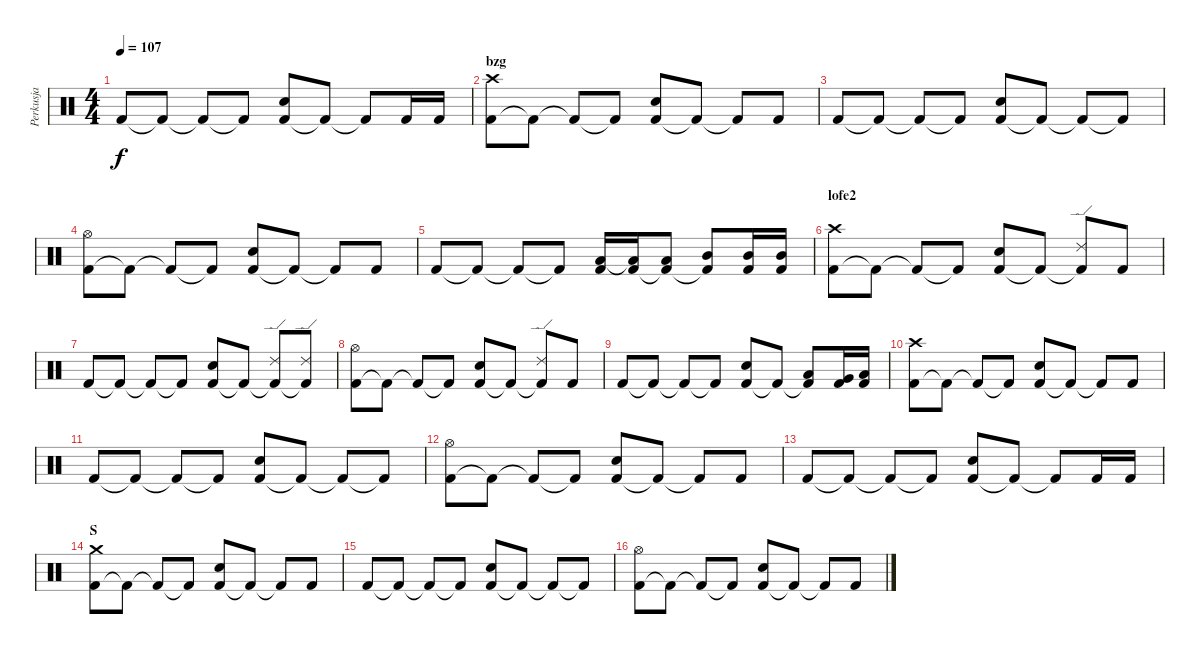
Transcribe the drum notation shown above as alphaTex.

\track ("Perkusja" "Perkusja") {instrument percussion}
\staff {score}
\articulation defaults
\ts (4 4)
\tempo 107
\clef neutral
\ks c "Kick (hit) 2".8{dy f} "Kick (hit) 2"{t}.8 "Kick (hit) 2"{t}.8 "Kick (hit) 2"{t}.8
("Kick (hit) 2" "Snare (hit) 2").8 "Kick (hit) 2"{t}.8 "Kick (hit) 2"{t}.8 "Kick (hit) 2".16 "Kick (hit) 2".16 |
\section ("" "bzg")
("Kick (hit) 2" "Crash high (hit)").8 "Kick (hit) 2"{t}.8 "Kick (hit) 2"{t}.8 "Kick (hit) 2"{t}.8 ("Kick (hit) 2" "Snare (hit) 2").8 "Kick (hit) 2"{t}.8 "Kick (hit) 2"{t}.8 "Kick (hit) 2".8 |
"Kick (hit) 2".8 "Kick (hit) 2"{t}.8 "Kick (hit) 2"{t}.8 "Kick (hit) 2"{t}.8 ("Kick (hit) 2" "Snare (hit) 2").8 "Kick (hit) 2"{t}.8 "Kick (hit) 2"{t}.8 "Kick (hit) 2"{t}.8 |
("Kick (hit) 2" "Hi-Hat (open)").8 "Kick (hit) 2"{t}.8 "Kick (hit) 2"{t}.8 "Kick (hit) 2"{t}.8 ("Kick (hit) 2" "Snare (hit) 2").8 "Kick (hit) 2"{t}.8 "Kick (hit) 2"{t}.8 "Kick (hit) 2".8 |
"Kick (hit) 2".8 "Kick (hit) 2"{t}.8 "Kick (hit) 2"{t}.8 "Kick (hit) 2"{t}.8 ("Kick (hit) 2" "Low Tom (hit)").16 ("Kick (hit) 2" "Low Tom (hit)"{t}).16 ("Kick (hit) 2"{t} "Low Tom (hit)").8 ("Kick (hit) 2"{t} "Mid Tom (hit)").8 ("Kick (hit) 2" "Mid Tom (hit)").16 ("Kick (hit) 2" "Mid Tom (hit)").16 |
\section ("" "lofe2")
("Kick (hit) 2" "Crash high (hit)").8 "Kick (hit) 2"{t}.8 "Kick (hit) 2"{t}.8 "Kick (hit) 2"{t}.8 ("Kick (hit) 2" "Snare (hit) 2").8 "Kick (hit) 2"{t}.8 ("Kick (hit) 2"{t} "Ride (edge) 2").8 "Kick (hit) 2".8 |
"Kick (hit) 2".8 "Kick (hit) 2"{t}.8 "Kick (hit) 2"{t}.8 "Kick (hit) 2"{t}.8 ("Kick (hit) 2" "Snare (hit) 2").8 "Kick (hit) 2"{t}.8 ("Kick (hit) 2"{t} "Ride (edge) 2").8 ("Kick (hit) 2"{t} "Ride (edge) 2").8 |
("Kick (hit) 2" "Hi-Hat (open)").8 "Kick (hit) 2"{t}.8 "Kick (hit) 2"{t}.8 "Kick (hit) 2"{t}.8 ("Kick (hit) 2" "Snare (hit) 2").8 "Kick (hit) 2"{t}.8 ("Kick (hit) 2"{t} "Ride (edge) 2").8 "Kick (hit) 2".8 |
"Kick (hit) 2".8 "Kick (hit) 2"{t}.8 "Kick (hit) 2"{t}.8 "Kick (hit) 2"{t}.8 ("Kick (hit) 2" "Snare (hit) 2").8 "Kick (hit) 2"{t}.8 ("Kick (hit) 2"{t} "Low Tom (hit)").8 ("Kick (hit) 2" "Very Low Tom (hit)").16 ("Kick (hit) 2" "Low Floor Tom (hit)").16 |
("Kick (hit) 2" "Crash high (hit)").8 "Kick (hit) 2"{t}.8 "Kick (hit) 2"{t}.8 "Kick (hit) 2"{t}.8 ("Kick (hit) 2" "Snare (hit) 2").8 "Kick (hit) 2"{t}.8 "Kick (hit) 2"{t}.8 "Kick (hit) 2".8 |
"Kick (hit) 2".8 "Kick (hit) 2"{t}.8 "Kick (hit) 2"{t}.8 "Kick (hit) 2"{t}.8 ("Kick (hit) 2" "Snare (hit) 2").8 "Kick (hit) 2"{t}.8 "Kick (hit) 2"{t}.8 "Kick (hit) 2"{t}.8 |
("Kick (hit) 2" "Hi-Hat (open)").8 "Kick (hit) 2"{t}.8 "Kick (hit) 2"{t}.8 "Kick (hit) 2"{t}.8 ("Kick (hit) 2" "Snare (hit) 2").8 "Kick (hit) 2"{t}.8 "Kick (hit) 2"{t}.8 "Kick (hit) 2".8 |
"Kick (hit) 2".8 "Kick (hit) 2"{t}.8 "Kick (hit) 2"{t}.8 "Kick (hit) 2"{t}.8 ("Kick (hit) 2" "Snare (hit) 2").8 "Kick (hit) 2"{t}.8 "Kick (hit) 2"{t}.8 "Kick (hit) 2".16 "Kick (hit) 2".16 |
\section ("" "S")
("Kick (hit) 2" "Crash medium (hit)").8 "Kick (hit) 2"{t}.8 "Kick (hit) 2"{t}.8 "Kick (hit) 2"{t}.8 ("Kick (hit) 2" "Snare (hit) 2").8 "Kick (hit) 2"{t}.8 "Kick (hit) 2"{t}.8 "Kick (hit) 2".8 |
"Kick (hit) 2".8 "Kick (hit) 2"{t}.8 "Kick (hit) 2"{t}.8 "Kick (hit) 2"{t}.8 ("Kick (hit) 2" "Snare (hit) 2").8 "Kick (hit) 2"{t}.8 "Kick (hit) 2"{t}.8 "Kick (hit) 2"{t}.8 |
("Kick (hit) 2" "Hi-Hat (open)").8 "Kick (hit) 2"{t}.8 "Kick (hit) 2"{t}.8 "Kick (hit) 2"{t}.8 ("Kick (hit) 2" "Snare (hit) 2").8 "Kick (hit) 2"{t}.8 "Kick (hit) 2"{t}.8 "Kick (hit) 2".8
